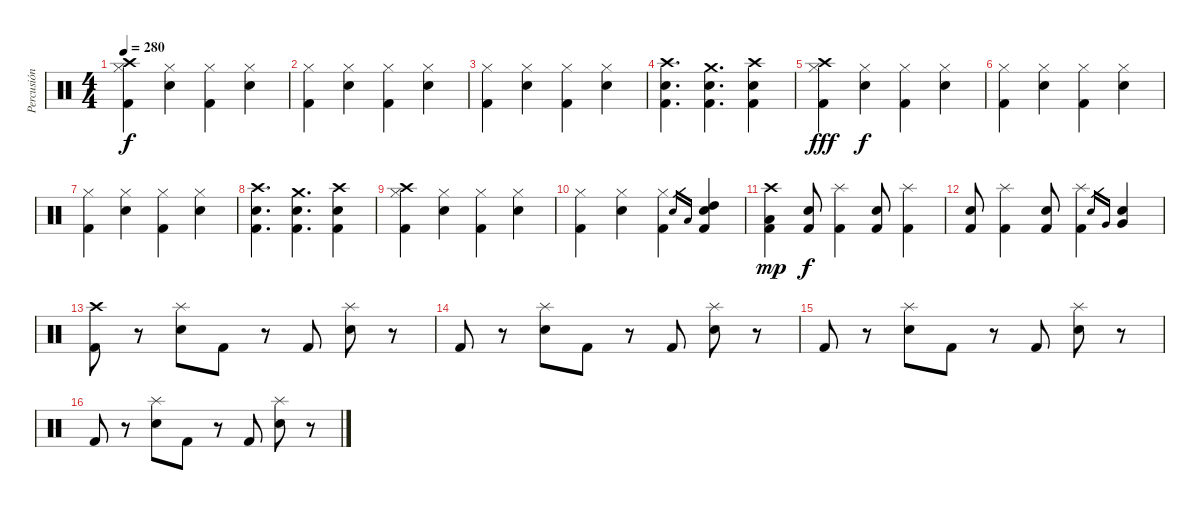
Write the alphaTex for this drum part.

\track ("Percusión" "Percusión") {instrument percussion}
\staff {score}
\articulation defaults
\ts (4 4)
\tempo 280
\clef neutral
\ks c
("Crash high (hit)" "Hi-Hat (closed)" "Kick (hit) 2").4{dy f} ("Snare (hit) 2" "Hi-Hat (closed)").4 ("Hi-Hat (closed)" "Kick (hit) 2").4 ("Snare (hit) 2" "Hi-Hat (closed)").4 |
("Hi-Hat (closed)" "Kick (hit) 2").4 ("Snare (hit) 2" "Hi-Hat (closed)").4 ("Hi-Hat (closed)" "Kick (hit) 2").4 ("Snare (hit) 2" "Hi-Hat (closed)").4 |
("Hi-Hat (closed)" "Kick (hit) 2").4 ("Snare (hit) 2" "Hi-Hat (closed)").4 ("Hi-Hat (closed)" "Kick (hit) 2").4 ("Snare (hit) 2" "Hi-Hat (closed)").4 |
("Crash high (hit)" "Snare (hit) 2" "Kick (hit) 2").4{d} ("Crash medium (hit)" "Snare (hit) 2" "Kick (hit) 2").4{d} ("Crash high (hit)" "Snare (hit) 2" "Kick (hit) 2").4 |
("Crash high (hit)" "Hi-Hat (closed)" "Kick (hit) 2").4{dy fff} ("Snare (hit) 2" "Hi-Hat (closed)").4{dy f} ("Hi-Hat (closed)" "Kick (hit) 2").4 ("Snare (hit) 2" "Hi-Hat (closed)").4 |
("Hi-Hat (closed)" "Kick (hit) 2").4 ("Snare (hit) 2" "Hi-Hat (closed)").4 ("Hi-Hat (closed)" "Kick (hit) 2").4 ("Snare (hit) 2" "Hi-Hat (closed)").4 |
("Hi-Hat (closed)" "Kick (hit) 2").4 ("Snare (hit) 2" "Hi-Hat (closed)").4 ("Hi-Hat (closed)" "Kick (hit) 2").4 ("Snare (hit) 2" "Hi-Hat (closed)").4 |
("Crash high (hit)" "Snare (hit) 2" "Kick (hit) 2").4{d} ("Crash medium (hit)" "Snare (hit) 2" "Kick (hit) 2").4{d} ("Crash high (hit)" "Snare (hit) 2" "Kick (hit) 2").4 |
("Crash high (hit)" "Hi-Hat (closed)" "Kick (hit) 2").4 ("Snare (hit) 2" "Hi-Hat (closed)").4 ("Hi-Hat (closed)" "Kick (hit) 2").4 ("Snare (hit) 2" "Hi-Hat (closed)").4 |
("Hi-Hat (closed)" "Kick (hit) 2").4 ("Snare (hit) 2" "Hi-Hat (closed)").4 ("Hi-Hat (closed)" "Kick (hit) 2").4 "Snare (hit) 2".16{gr} "Low Tom (hit)".16{gr} ("Snare (hit) 2" "High Tom (hit)" "Kick (hit) 2").4 |
("Low Tom (hit)" "Crash high (hit)" "Kick (hit) 2").4{dy mp} ("Snare (hit) 2" "Kick (hit) 2").8{dy f} ("Splash (hit)" "Kick (hit) 2").4 ("Snare (hit) 2" "Kick (hit) 2").8 ("Splash (hit)" "Kick (hit) 2").4 |
("Snare (hit) 2" "Kick (hit) 2").8 ("Splash (hit)" "Kick (hit) 2").4 ("Snare (hit) 2" "Kick (hit) 2").8 ("Splash (hit)" "Kick (hit) 2").4 "Snare (hit) 2".16{gr} "Very Low Tom (hit)".16{gr} ("Snare (hit) 2" "Very Low Tom (hit)").4 |
("Crash high (hit)" "Kick (hit) 2").8 r.8 ("Snare (hit) 2" "Splash (hit)").8 "Kick (hit) 2".8 r.8 "Kick (hit) 2".8 ("Snare (hit) 2" "Splash (hit)").8 r.8 |
"Kick (hit) 2".8 r.8 ("Snare (hit) 2" "Splash (hit)").8 "Kick (hit) 2".8 r.8 "Kick (hit) 2".8 ("Snare (hit) 2" "Splash (hit)").8 r.8 |
"Kick (hit) 2".8 r.8 ("Snare (hit) 2" "Splash (hit)").8 "Kick (hit) 2".8 r.8 "Kick (hit) 2".8 ("Snare (hit) 2" "Splash (hit)").8 r.8 |
"Kick (hit) 2".8 r.8 ("Snare (hit) 2" "Splash (hit)").8 "Kick (hit) 2".8 r.8 "Kick (hit) 2".8 ("Snare (hit) 2" "Splash (hit)").8 r.8
